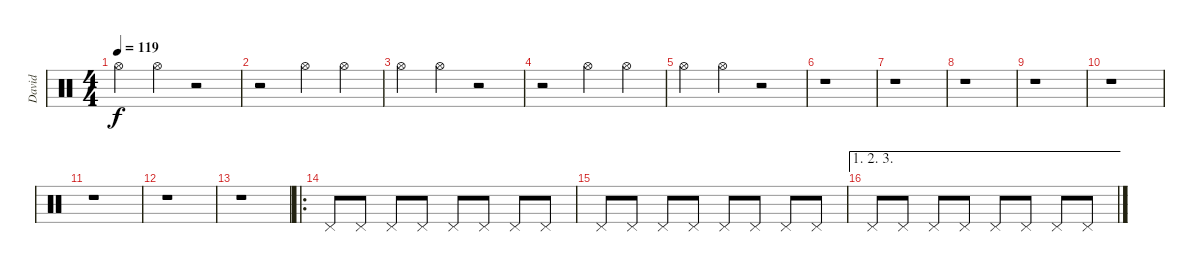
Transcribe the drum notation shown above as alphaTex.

\track ("David" "David") {instrument percussion}
\staff {score}
\articulation defaults
\ts (4 4)
\tempo 119
\clef neutral
\ks c "Hi-Hat (open)".4{dy f} "Hi-Hat (open)".4
r.2 |
r.2 "Hi-Hat (open)".4 "Hi-Hat (open)".4 |
"Hi-Hat (open)".4 "Hi-Hat (open)".4 r.2 |
r.2 "Hi-Hat (open)".4 "Hi-Hat (open)".4 |
"Hi-Hat (open)".4 "Hi-Hat (open)".4 r.2 |
r.1 |
r.1 |
r.1 |
r.1 |
r.1 |
r.1 |
r.1 |
r.1 |
\ro "Pedal Hi-Hat (hit)".8 "Pedal Hi-Hat (hit)".8 "Pedal Hi-Hat (hit)".8 "Pedal Hi-Hat (hit)".8 "Pedal Hi-Hat (hit)".8 "Pedal Hi-Hat (hit)".8 "Pedal Hi-Hat (hit)".8 "Pedal Hi-Hat (hit)".8
|
"Pedal Hi-Hat (hit)".8 "Pedal Hi-Hat (hit)".8 "Pedal Hi-Hat (hit)".8 "Pedal Hi-Hat (hit)".8 "Pedal Hi-Hat (hit)".8 "Pedal Hi-Hat (hit)".8 "Pedal Hi-Hat (hit)".8 "Pedal Hi-Hat (hit)".8 |
\ae (1 2 3)
"Pedal Hi-Hat (hit)".8 "Pedal Hi-Hat (hit)".8 "Pedal Hi-Hat (hit)".8 "Pedal Hi-Hat (hit)".8 "Pedal Hi-Hat (hit)".8 "Pedal Hi-Hat (hit)".8 "Pedal Hi-Hat (hit)".8 "Pedal Hi-Hat (hit)".8
